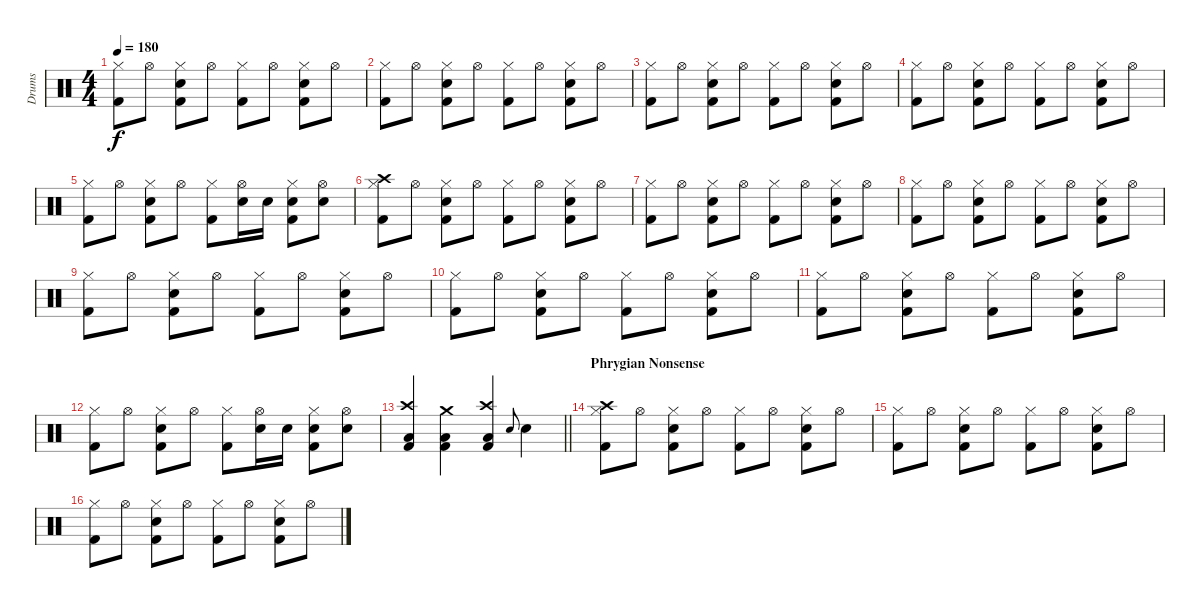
\track ("Drums" "Drums") {instrument percussion}
\staff {score}
\articulation defaults
\ts (4 4)
\tempo 180
\clef neutral
\ks c
("Hi-Hat (closed)" "Kick (hit) 2").8{dy f} "Hi-Hat (open)".8 ("Hi-Hat (closed)" "Snare (hit) 2" "Kick (hit) 2").8 "Hi-Hat (open)".8 ("Hi-Hat (closed)" "Kick (hit) 2").8 "Hi-Hat (open)".8 ("Hi-Hat (closed)" "Snare (hit) 2" "Kick (hit) 2").8 "Hi-Hat (open)".8 |
("Hi-Hat (closed)" "Kick (hit) 2").8 "Hi-Hat (open)".8 ("Hi-Hat (closed)" "Snare (hit) 2" "Kick (hit) 2").8 "Hi-Hat (open)".8 ("Hi-Hat (closed)" "Kick (hit) 2").8 "Hi-Hat (open)".8 ("Hi-Hat (closed)" "Snare (hit) 2" "Kick (hit) 2").8 "Hi-Hat (open)".8 |
("Hi-Hat (closed)" "Kick (hit) 2").8 "Hi-Hat (open)".8 ("Hi-Hat (closed)" "Snare (hit) 2" "Kick (hit) 2").8 "Hi-Hat (open)".8 ("Hi-Hat (closed)" "Kick (hit) 2").8 "Hi-Hat (open)".8 ("Hi-Hat (closed)" "Snare (hit) 2" "Kick (hit) 2").8 "Hi-Hat (open)".8 |
("Hi-Hat (closed)" "Kick (hit) 2").8 "Hi-Hat (open)".8 ("Hi-Hat (closed)" "Snare (hit) 2" "Kick (hit) 2").8 "Hi-Hat (open)".8 ("Hi-Hat (closed)" "Kick (hit) 2").8 "Hi-Hat (open)".8 ("Hi-Hat (closed)" "Snare (hit) 2" "Kick (hit) 2").8 "Hi-Hat (open)".8 |
("Hi-Hat (closed)" "Kick (hit) 2").8 "Hi-Hat (open)".8 ("Hi-Hat (closed)" "Snare (hit) 2" "Kick (hit) 2").8 "Hi-Hat (open)".8 ("Hi-Hat (closed)" "Kick (hit) 2").8 ("Hi-Hat (open)" "Snare (hit) 2").16 "Snare (hit) 2".16 ("Hi-Hat (closed)" "Snare (hit) 2" "Kick (hit) 2").8 ("Hi-Hat (open)" "Snare (hit) 2").8 |
("Crash high (hit)" "Hi-Hat (closed)" "Kick (hit) 2").8 "Hi-Hat (open)".8 ("Hi-Hat (closed)" "Snare (hit) 2" "Kick (hit) 2").8 "Hi-Hat (open)".8 ("Hi-Hat (closed)" "Kick (hit) 2").8 "Hi-Hat (open)".8 ("Hi-Hat (closed)" "Snare (hit) 2" "Kick (hit) 2").8 "Hi-Hat (open)".8 |
("Hi-Hat (closed)" "Kick (hit) 2").8 "Hi-Hat (open)".8 ("Hi-Hat (closed)" "Snare (hit) 2" "Kick (hit) 2").8 "Hi-Hat (open)".8 ("Hi-Hat (closed)" "Kick (hit) 2").8 "Hi-Hat (open)".8 ("Hi-Hat (closed)" "Snare (hit) 2" "Kick (hit) 2").8 "Hi-Hat (open)".8 |
("Hi-Hat (closed)" "Kick (hit) 2").8 "Hi-Hat (open)".8 ("Hi-Hat (closed)" "Snare (hit) 2" "Kick (hit) 2").8 "Hi-Hat (open)".8 ("Hi-Hat (closed)" "Kick (hit) 2").8 "Hi-Hat (open)".8 ("Hi-Hat (closed)" "Snare (hit) 2" "Kick (hit) 2").8 "Hi-Hat (open)".8 |
("Hi-Hat (closed)" "Kick (hit) 2").8 "Hi-Hat (open)".8 ("Hi-Hat (closed)" "Snare (hit) 2" "Kick (hit) 2").8 "Hi-Hat (open)".8 ("Hi-Hat (closed)" "Kick (hit) 2").8 "Hi-Hat (open)".8 ("Hi-Hat (closed)" "Snare (hit) 2" "Kick (hit) 2").8 "Hi-Hat (open)".8 |
("Hi-Hat (closed)" "Kick (hit) 2").8 "Hi-Hat (open)".8 ("Hi-Hat (closed)" "Snare (hit) 2" "Kick (hit) 2").8 "Hi-Hat (open)".8 ("Hi-Hat (closed)" "Kick (hit) 2").8 "Hi-Hat (open)".8 ("Hi-Hat (closed)" "Snare (hit) 2" "Kick (hit) 2").8 "Hi-Hat (open)".8 |
("Hi-Hat (closed)" "Kick (hit) 2").8 "Hi-Hat (open)".8 ("Hi-Hat (closed)" "Snare (hit) 2" "Kick (hit) 2").8 "Hi-Hat (open)".8 ("Hi-Hat (closed)" "Kick (hit) 2").8 "Hi-Hat (open)".8 ("Hi-Hat (closed)" "Snare (hit) 2" "Kick (hit) 2").8 "Hi-Hat (open)".8 |
("Hi-Hat (closed)" "Kick (hit) 2").8 "Hi-Hat (open)".8 ("Hi-Hat (closed)" "Snare (hit) 2" "Kick (hit) 2").8 "Hi-Hat (open)".8 ("Hi-Hat (closed)" "Kick (hit) 2").8 ("Hi-Hat (open)" "Snare (hit) 2").16 "Snare (hit) 2".16 ("Hi-Hat (closed)" "Snare (hit) 2" "Kick (hit) 2").8 ("Hi-Hat (open)" "Snare (hit) 2").8 |
\barLineRight lightlight
("Crash high (hit)" "Low Floor Tom (hit)" "Kick (hit) 2").4 ("Crash medium (hit)" "Low Floor Tom (hit)" "Kick (hit) 2").4 ("Crash high (hit)" "Low Floor Tom (hit)" "Kick (hit) 2").4 "Snare (hit) 2".8{gr onbeat} "Snare (hit) 2".4 |
\section ("" "Phrygian Nonsense")
("Crash high (hit)" "Hi-Hat (closed)" "Kick (hit) 2").8 "Hi-Hat (open)".8 ("Hi-Hat (closed)" "Snare (hit) 2" "Kick (hit) 2").8 "Hi-Hat (open)".8 ("Hi-Hat (closed)" "Kick (hit) 2").8 "Hi-Hat (open)".8 ("Hi-Hat (closed)" "Snare (hit) 2" "Kick (hit) 2").8 "Hi-Hat (open)".8 |
("Hi-Hat (closed)" "Kick (hit) 2").8 "Hi-Hat (open)".8 ("Hi-Hat (closed)" "Snare (hit) 2" "Kick (hit) 2").8 "Hi-Hat (open)".8 ("Hi-Hat (closed)" "Kick (hit) 2").8 "Hi-Hat (open)".8 ("Hi-Hat (closed)" "Snare (hit) 2" "Kick (hit) 2").8 "Hi-Hat (open)".8 |
("Hi-Hat (closed)" "Kick (hit) 2").8 "Hi-Hat (open)".8 ("Hi-Hat (closed)" "Snare (hit) 2" "Kick (hit) 2").8 "Hi-Hat (open)".8 ("Hi-Hat (closed)" "Kick (hit) 2").8 "Hi-Hat (open)".8 ("Hi-Hat (closed)" "Snare (hit) 2" "Kick (hit) 2").8 "Hi-Hat (open)".8
